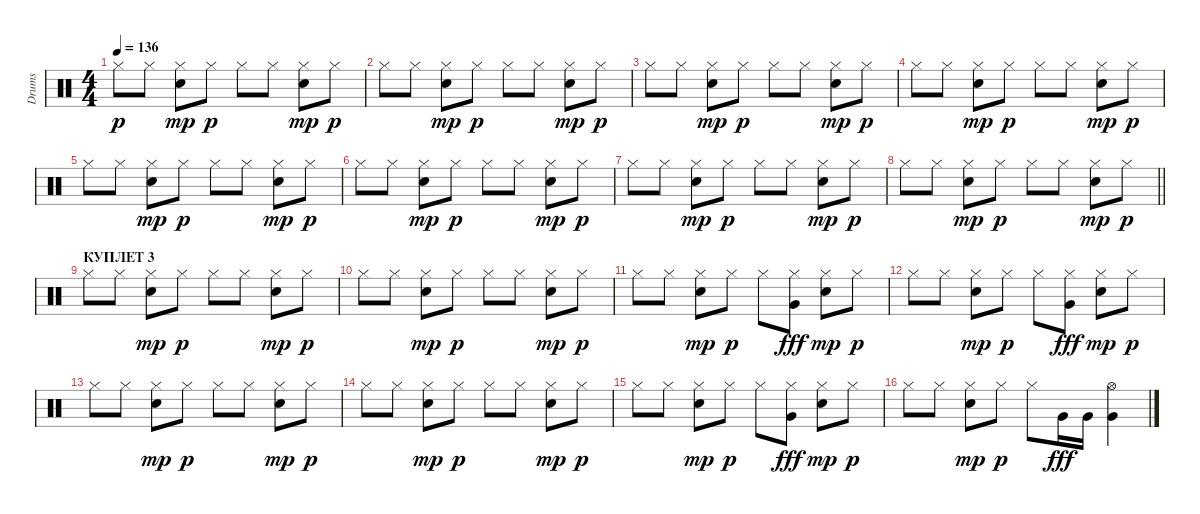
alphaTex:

\track ("Drums" "Drums") {instrument percussion}
\staff {score}
\articulation defaults
\ts (4 4)
\tempo 136
\clef neutral
\ks c "Hi-Hat (closed)".8{dy p} "Hi-Hat (closed)".8
("Hi-Hat (closed)" "Electric Snare (hit)").8{dy mp} "Hi-Hat (closed)".8{dy p} "Hi-Hat (closed)".8 "Hi-Hat (closed)".8 ("Hi-Hat (closed)" "Electric Snare (hit)").8{dy mp} "Hi-Hat (closed)".8{dy p} |
"Hi-Hat (closed)".8 "Hi-Hat (closed)".8 ("Hi-Hat (closed)" "Electric Snare (hit)").8{dy mp} "Hi-Hat (closed)".8{dy p} "Hi-Hat (closed)".8 "Hi-Hat (closed)".8 ("Hi-Hat (closed)" "Electric Snare (hit)").8{dy mp} "Hi-Hat (closed)".8{dy p} |
"Hi-Hat (closed)".8 "Hi-Hat (closed)".8 ("Hi-Hat (closed)" "Electric Snare (hit)").8{dy mp} "Hi-Hat (closed)".8{dy p} "Hi-Hat (closed)".8 "Hi-Hat (closed)".8 ("Hi-Hat (closed)" "Electric Snare (hit)").8{dy mp} "Hi-Hat (closed)".8{dy p} |
"Hi-Hat (closed)".8 "Hi-Hat (closed)".8 ("Hi-Hat (closed)" "Electric Snare (hit)").8{dy mp} "Hi-Hat (closed)".8{dy p} "Hi-Hat (closed)".8 "Hi-Hat (closed)".8 ("Hi-Hat (closed)" "Electric Snare (hit)").8{dy mp} "Hi-Hat (closed)".8{dy p} |
"Hi-Hat (closed)".8 "Hi-Hat (closed)".8 ("Hi-Hat (closed)" "Electric Snare (hit)").8{dy mp} "Hi-Hat (closed)".8{dy p} "Hi-Hat (closed)".8 "Hi-Hat (closed)".8 ("Hi-Hat (closed)" "Electric Snare (hit)").8{dy mp} "Hi-Hat (closed)".8{dy p} |
"Hi-Hat (closed)".8 "Hi-Hat (closed)".8 ("Hi-Hat (closed)" "Electric Snare (hit)").8{dy mp} "Hi-Hat (closed)".8{dy p} "Hi-Hat (closed)".8 "Hi-Hat (closed)".8 ("Hi-Hat (closed)" "Electric Snare (hit)").8{dy mp} "Hi-Hat (closed)".8{dy p} |
"Hi-Hat (closed)".8 "Hi-Hat (closed)".8 ("Hi-Hat (closed)" "Electric Snare (hit)").8{dy mp} "Hi-Hat (closed)".8{dy p} "Hi-Hat (closed)".8 "Hi-Hat (closed)".8 ("Hi-Hat (closed)" "Electric Snare (hit)").8{dy mp} "Hi-Hat (closed)".8{dy p} |
\barLineRight lightlight "Hi-Hat (closed)".8 "Hi-Hat (closed)".8
("Hi-Hat (closed)" "Electric Snare (hit)").8{dy mp} "Hi-Hat (closed)".8{dy p} "Hi-Hat (closed)".8 "Hi-Hat (closed)".8 ("Hi-Hat (closed)" "Electric Snare (hit)").8{dy mp} "Hi-Hat (closed)".8{dy p} |
\section ("" "КУПЛЕТ 3")
"Hi-Hat (closed)".8 "Hi-Hat (closed)".8 ("Hi-Hat (closed)" "Electric Snare (hit)").8{dy mp} "Hi-Hat (closed)".8{dy p} "Hi-Hat (closed)".8 "Hi-Hat (closed)".8 ("Hi-Hat (closed)" "Electric Snare (hit)").8{dy mp} "Hi-Hat (closed)".8{dy p} |
"Hi-Hat (closed)".8 "Hi-Hat (closed)".8 ("Hi-Hat (closed)" "Electric Snare (hit)").8{dy mp} "Hi-Hat (closed)".8{dy p} "Hi-Hat (closed)".8 "Hi-Hat (closed)".8 ("Hi-Hat (closed)" "Electric Snare (hit)").8{dy mp} "Hi-Hat (closed)".8{dy p} |
"Hi-Hat (closed)".8 "Hi-Hat (closed)".8 ("Hi-Hat (closed)" "Electric Snare (hit)").8{dy mp} "Hi-Hat (closed)".8{dy p} "Hi-Hat (closed)".8 ("Hi-Hat (closed)" "Very Low Tom (hit)").8{dy fff} ("Hi-Hat (closed)" "Electric Snare (hit)").8{dy mp} "Hi-Hat (closed)".8{dy p} |
"Hi-Hat (closed)".8 "Hi-Hat (closed)".8 ("Hi-Hat (closed)" "Electric Snare (hit)").8{dy mp} "Hi-Hat (closed)".8{dy p} "Hi-Hat (closed)".8 ("Hi-Hat (closed)" "Very Low Tom (hit)").8{dy fff} ("Hi-Hat (closed)" "Electric Snare (hit)").8{dy mp} "Hi-Hat (closed)".8{dy p} |
"Hi-Hat (closed)".8 "Hi-Hat (closed)".8 ("Hi-Hat (closed)" "Electric Snare (hit)").8{dy mp} "Hi-Hat (closed)".8{dy p} "Hi-Hat (closed)".8 "Hi-Hat (closed)".8 ("Hi-Hat (closed)" "Electric Snare (hit)").8{dy mp} "Hi-Hat (closed)".8{dy p} |
"Hi-Hat (closed)".8 "Hi-Hat (closed)".8 ("Hi-Hat (closed)" "Electric Snare (hit)").8{dy mp} "Hi-Hat (closed)".8{dy p} "Hi-Hat (closed)".8 "Hi-Hat (closed)".8 ("Hi-Hat (closed)" "Electric Snare (hit)").8{dy mp} "Hi-Hat (closed)".8{dy p} |
"Hi-Hat (closed)".8 "Hi-Hat (closed)".8 ("Hi-Hat (closed)" "Electric Snare (hit)").8{dy mp} "Hi-Hat (closed)".8{dy p} "Hi-Hat (closed)".8 ("Hi-Hat (closed)" "Very Low Tom (hit)").8{dy fff} ("Hi-Hat (closed)" "Electric Snare (hit)").8{dy mp} "Hi-Hat (closed)".8{dy p} |
"Hi-Hat (closed)".8 "Hi-Hat (closed)".8 ("Hi-Hat (closed)" "Electric Snare (hit)").8{dy mp} "Hi-Hat (closed)".8{dy p} "Hi-Hat (closed)".8 "Very Low Tom (hit)".16{dy fff} "Very Low Tom (hit)".16 ("Hi-Hat (open)" "Very Low Tom (hit)").4
